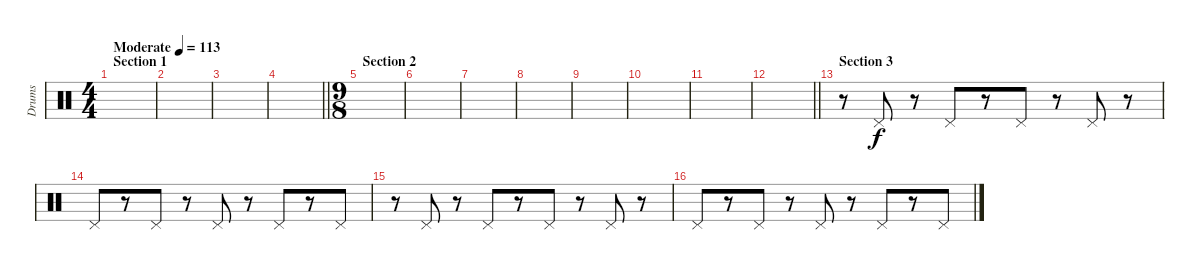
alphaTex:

\track ("Drums" "Drums") {instrument percussion}
\staff {score}
\articulation defaults
\ts (4 4)
\section ("" "Section 1")
\tempo (113 "Moderate")
\clef neutral
\ks c
|
|
|
\barLineRight lightlight
|
\ts (9 8)
\section ("" "Section 2")
|
|
|
|
|
|
|
\barLineRight lightlight
|
\section ("" "Section 3")
r.8 "Pedal Hi-Hat (hit)".8 r.8 "Pedal Hi-Hat (hit)".8 r.8 "Pedal Hi-Hat (hit)".8 r.8 "Pedal Hi-Hat (hit)".8 r.8 |
"Pedal Hi-Hat (hit)".8 r.8 "Pedal Hi-Hat (hit)".8 r.8 "Pedal Hi-Hat (hit)".8 r.8 "Pedal Hi-Hat (hit)".8 r.8 "Pedal Hi-Hat (hit)".8 |
r.8 "Pedal Hi-Hat (hit)".8 r.8 "Pedal Hi-Hat (hit)".8 r.8 "Pedal Hi-Hat (hit)".8 r.8 "Pedal Hi-Hat (hit)".8 r.8 |
"Pedal Hi-Hat (hit)".8 r.8 "Pedal Hi-Hat (hit)".8 r.8 "Pedal Hi-Hat (hit)".8 r.8 "Pedal Hi-Hat (hit)".8 r.8 "Pedal Hi-Hat (hit)".8
